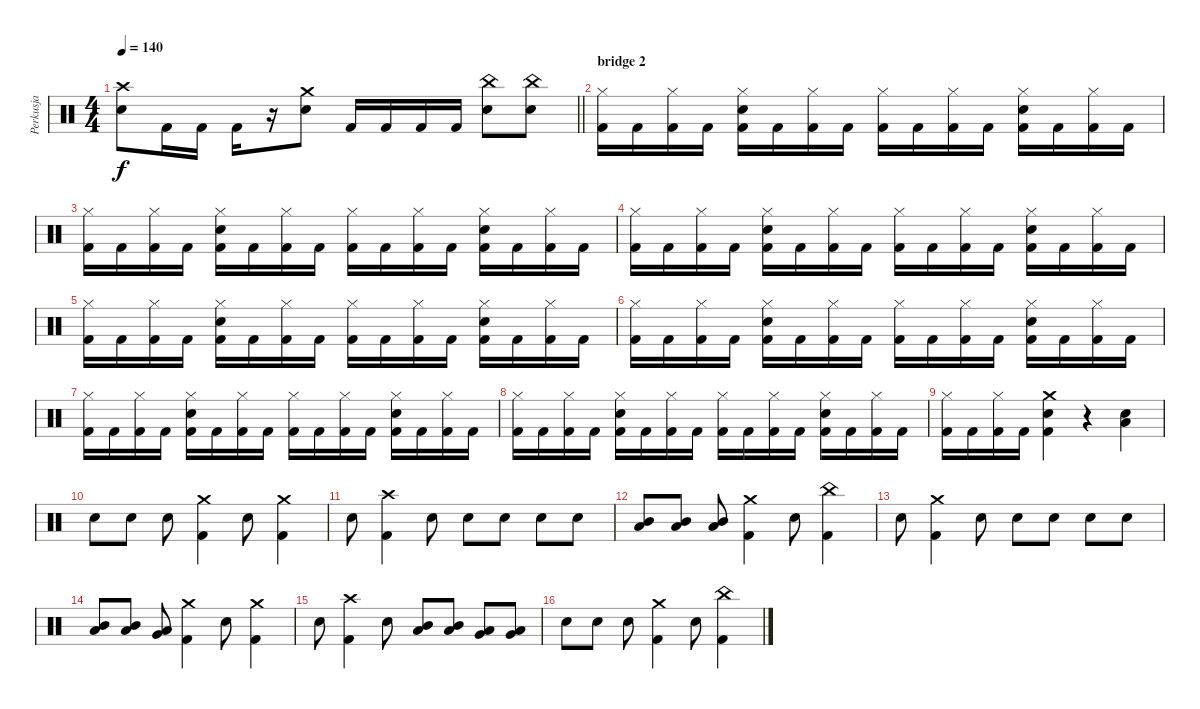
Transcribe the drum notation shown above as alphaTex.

\track ("Perkusja" "Perkusja") {instrument percussion}
\staff {score}
\articulation defaults
\ts (4 4)
\tempo 140
\clef neutral
\barLineRight lightlight
\ks c
("Crash high (hit)" "Snare (hit) 2").8{dy f} "Kick (hit) 2".16 "Kick (hit) 2".16 "Kick (hit) 2".16 r.16 ("Crash medium (hit)" "Snare (hit) 2").8 "Kick (hit) 2".16 "Kick (hit) 2".16 "Kick (hit) 2".16 "Kick (hit) 2".16 ("China (hit)" "Snare (hit) 2").8 ("China (hit)" "Snare (hit) 2").8 |
\section ("" "bridge 2")
("Hi-Hat (closed)" "Kick (hit) 2").16 "Kick (hit) 2".16 ("Hi-Hat (closed)" "Kick (hit) 2").16 "Kick (hit) 2".16 ("Hi-Hat (closed)" "Kick (hit) 2" "Snare (hit) 2").16 "Kick (hit) 2".16 ("Hi-Hat (closed)" "Kick (hit) 2").16 "Kick (hit) 2".16 ("Hi-Hat (closed)" "Kick (hit) 2").16 "Kick (hit) 2".16 ("Hi-Hat (closed)" "Kick (hit) 2").16 "Kick (hit) 2".16 ("Hi-Hat (closed)" "Kick (hit) 2" "Snare (hit) 2").16 "Kick (hit) 2".16 ("Hi-Hat (closed)" "Kick (hit) 2").16 "Kick (hit) 2".16 |
("Hi-Hat (closed)" "Kick (hit) 2").16 "Kick (hit) 2".16 ("Hi-Hat (closed)" "Kick (hit) 2").16 "Kick (hit) 2".16 ("Hi-Hat (closed)" "Kick (hit) 2" "Snare (hit) 2").16 "Kick (hit) 2".16 ("Hi-Hat (closed)" "Kick (hit) 2").16 "Kick (hit) 2".16 ("Hi-Hat (closed)" "Kick (hit) 2").16 "Kick (hit) 2".16 ("Hi-Hat (closed)" "Kick (hit) 2").16 "Kick (hit) 2".16 ("Hi-Hat (closed)" "Kick (hit) 2" "Snare (hit) 2").16 "Kick (hit) 2".16 ("Hi-Hat (closed)" "Kick (hit) 2").16 "Kick (hit) 2".16 |
("Hi-Hat (closed)" "Kick (hit) 2").16 "Kick (hit) 2".16 ("Hi-Hat (closed)" "Kick (hit) 2").16 "Kick (hit) 2".16 ("Hi-Hat (closed)" "Kick (hit) 2" "Snare (hit) 2").16 "Kick (hit) 2".16 ("Hi-Hat (closed)" "Kick (hit) 2").16 "Kick (hit) 2".16 ("Hi-Hat (closed)" "Kick (hit) 2").16 "Kick (hit) 2".16 ("Hi-Hat (closed)" "Kick (hit) 2").16 "Kick (hit) 2".16 ("Hi-Hat (closed)" "Kick (hit) 2" "Snare (hit) 2").16 "Kick (hit) 2".16 ("Hi-Hat (closed)" "Kick (hit) 2").16 "Kick (hit) 2".16 |
("Hi-Hat (closed)" "Kick (hit) 2").16 "Kick (hit) 2".16 ("Hi-Hat (closed)" "Kick (hit) 2").16 "Kick (hit) 2".16 ("Hi-Hat (closed)" "Kick (hit) 2" "Snare (hit) 2").16 "Kick (hit) 2".16 ("Hi-Hat (closed)" "Kick (hit) 2").16 "Kick (hit) 2".16 ("Hi-Hat (closed)" "Kick (hit) 2").16 "Kick (hit) 2".16 ("Hi-Hat (closed)" "Kick (hit) 2").16 "Kick (hit) 2".16 ("Hi-Hat (closed)" "Kick (hit) 2" "Snare (hit) 2").16 "Kick (hit) 2".16 ("Hi-Hat (closed)" "Kick (hit) 2").16 "Kick (hit) 2".16 |
("Hi-Hat (closed)" "Kick (hit) 2").16 "Kick (hit) 2".16 ("Hi-Hat (closed)" "Kick (hit) 2").16 "Kick (hit) 2".16 ("Hi-Hat (closed)" "Kick (hit) 2" "Snare (hit) 2").16 "Kick (hit) 2".16 ("Hi-Hat (closed)" "Kick (hit) 2").16 "Kick (hit) 2".16 ("Hi-Hat (closed)" "Kick (hit) 2").16 "Kick (hit) 2".16 ("Hi-Hat (closed)" "Kick (hit) 2").16 "Kick (hit) 2".16 ("Hi-Hat (closed)" "Kick (hit) 2" "Snare (hit) 2").16 "Kick (hit) 2".16 ("Hi-Hat (closed)" "Kick (hit) 2").16 "Kick (hit) 2".16 |
("Hi-Hat (closed)" "Kick (hit) 2").16 "Kick (hit) 2".16 ("Hi-Hat (closed)" "Kick (hit) 2").16 "Kick (hit) 2".16 ("Hi-Hat (closed)" "Kick (hit) 2" "Snare (hit) 2").16 "Kick (hit) 2".16 ("Hi-Hat (closed)" "Kick (hit) 2").16 "Kick (hit) 2".16 ("Hi-Hat (closed)" "Kick (hit) 2").16 "Kick (hit) 2".16 ("Hi-Hat (closed)" "Kick (hit) 2").16 "Kick (hit) 2".16 ("Hi-Hat (closed)" "Kick (hit) 2" "Snare (hit) 2").16 "Kick (hit) 2".16 ("Hi-Hat (closed)" "Kick (hit) 2").16 "Kick (hit) 2".16 |
("Hi-Hat (closed)" "Kick (hit) 2").16 "Kick (hit) 2".16 ("Hi-Hat (closed)" "Kick (hit) 2").16 "Kick (hit) 2".16 ("Hi-Hat (closed)" "Kick (hit) 2" "Snare (hit) 2").16 "Kick (hit) 2".16 ("Hi-Hat (closed)" "Kick (hit) 2").16 "Kick (hit) 2".16 ("Hi-Hat (closed)" "Kick (hit) 2").16 "Kick (hit) 2".16 ("Hi-Hat (closed)" "Kick (hit) 2").16 "Kick (hit) 2".16 ("Hi-Hat (closed)" "Kick (hit) 2" "Snare (hit) 2").16 "Kick (hit) 2".16 ("Hi-Hat (closed)" "Kick (hit) 2").16 "Kick (hit) 2".16 |
("Hi-Hat (closed)" "Kick (hit) 2").16 "Kick (hit) 2".16 ("Hi-Hat (closed)" "Kick (hit) 2").16 "Kick (hit) 2".16 ("Crash medium (hit)" "Kick (hit) 2" "Snare (hit) 2").4 r.4 ("Snare (hit) 2" "Low Floor Tom (hit)").4 |
"Snare (hit) 2".8 "Snare (hit) 2".8 "Snare (hit) 2".8 ("Kick (hit) 2" "Crash medium (hit)").4 "Snare (hit) 2".8 ("Kick (hit) 2" "Crash medium (hit)").4 |
"Snare (hit) 2".8 ("Kick (hit) 2" "Crash high (hit)").4 "Snare (hit) 2".8 "Snare (hit) 2".8 "Snare (hit) 2".8 "Snare (hit) 2".8 "Snare (hit) 2".8 |
("Low Tom (hit)" "Mid Tom (hit)").8 ("Low Tom (hit)" "Mid Tom (hit)").8 ("Low Tom (hit)" "Mid Tom (hit)").8 ("Kick (hit) 2" "Crash medium (hit)").4 "Snare (hit) 2".8 ("Kick (hit) 2" "China (hit)").4 |
"Snare (hit) 2".8 ("Kick (hit) 2" "Crash medium (hit)").4 "Snare (hit) 2".8 "Snare (hit) 2".8 "Snare (hit) 2".8 "Snare (hit) 2".8 "Snare (hit) 2".8 |
("Low Tom (hit)" "Mid Tom (hit)").8 ("Low Tom (hit)" "Mid Tom (hit)").8 ("Low Tom (hit)" "Very Low Tom (hit)").8 ("Kick (hit) 2" "Crash medium (hit)").4 "Snare (hit) 2".8 ("Kick (hit) 2" "Crash medium (hit)").4 |
"Snare (hit) 2".8 ("Kick (hit) 2" "Crash high (hit)").4 "Snare (hit) 2".8 ("Mid Tom (hit)" "Low Tom (hit)").8 ("Mid Tom (hit)" "Low Tom (hit)").8 ("Low Tom (hit)" "Very Low Tom (hit)").8 ("Low Tom (hit)" "Very Low Tom (hit)").8 |
"Snare (hit) 2".8 "Snare (hit) 2".8 "Snare (hit) 2".8 ("Kick (hit) 2" "Crash medium (hit)").4 "Snare (hit) 2".8 ("Kick (hit) 2" "China (hit)").4
